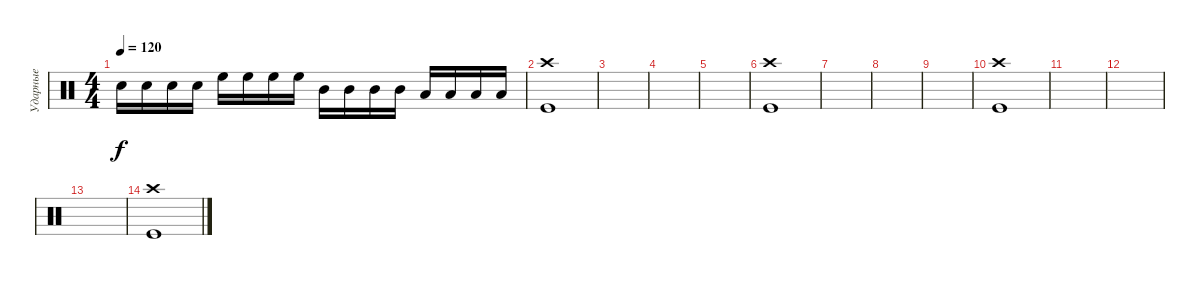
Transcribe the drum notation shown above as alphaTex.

\track ("Ударные" "Ударные") {instrument percussion}
\staff {score}
\articulation defaults
\ts (4 4)
\tempo 120
\clef neutral
\ks c "Electric Snare (hit)".16{dy f} "Electric Snare (hit)".16 "Electric Snare (hit)".16 "Electric Snare (hit)".16 "High Floor Tom (hit)".16 "High Floor Tom (hit)".16 "High Floor Tom (hit)".16 "High Floor Tom (hit)".16 "Mid Tom (hit)".16 "Mid Tom (hit)".16 "Mid Tom (hit)".16 "Mid Tom (hit)".16 "Low Tom (hit)".16 "Low Tom (hit)".16 "Low Tom (hit)".16 "Low Tom (hit)".16
|
("Kick (hit)" "Crash high (hit)").1 |
|
|
|
("Kick (hit)" "Crash high (hit)").1 |
|
|
|
("Kick (hit)" "Crash high (hit)").1 |
|
|
|
("Kick (hit)" "Crash high (hit)").1
